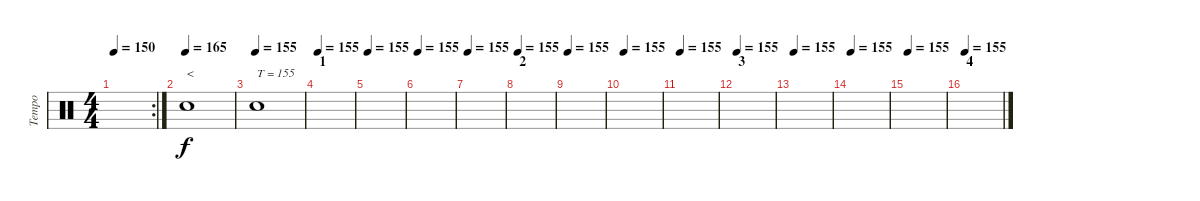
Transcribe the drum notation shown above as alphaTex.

\track ("Tempo" "Tempo") {instrument percussion}
\staff {score}
\articulation defaults
\rc 2
\ts (4 4)
\tempo 150
\clef neutral
\ks c
|
\tempo 155
\tempo (165)
"Snare (hit)"{x}.1{txt "<"} |
\tempo (155)
"Snare (hit)"{x}.1{txt "T = 155"} |
\section ("" "1")
\tempo 155
|
\tempo 155
|
\tempo 155
|
\tempo 155
|
\section ("" "2")
\tempo 155
|
\tempo 155
|
\tempo 155
|
\tempo 155
|
\section ("" "3")
\tempo 155
|
\tempo 155
|
\tempo 155
|
\tempo 155
|
\section ("" "4")
\tempo 155
